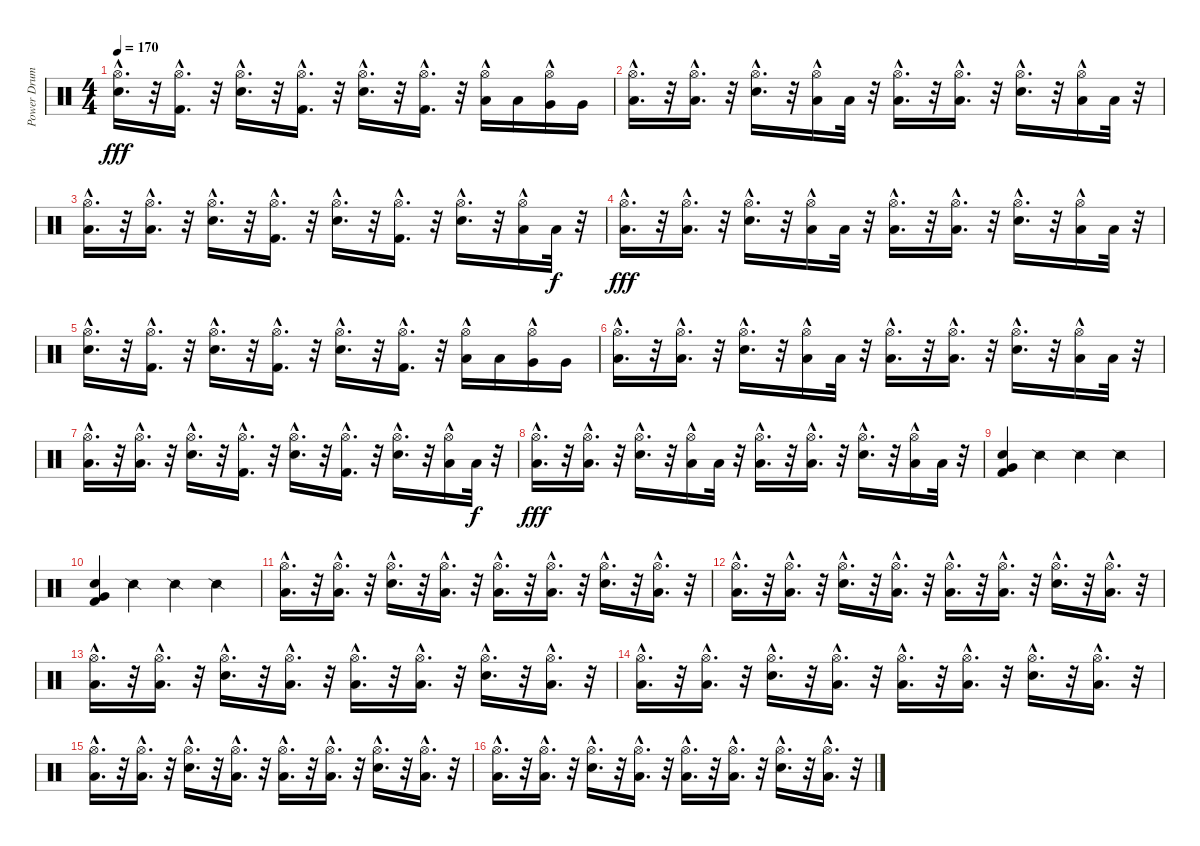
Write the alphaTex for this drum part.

\track ("Power Drums " "Power Drum") {instrument percussion}
\staff {score}
\articulation defaults
\ts (4 4)
\tempo 170
\clef neutral
\ks c
("Snare (hit) 2"{hac} "Hi-Hat (open)"{hac}).16{d dy fff} r.32 ("Kick (hit) 2"{hac} "Hi-Hat (open)"{hac}).16{d} r.32 ("Snare (hit) 2"{hac} "Hi-Hat (open)"{hac}).16{d} r.32 ("Kick (hit) 2"{hac} "Hi-Hat (open)"{hac}).16{d} r.32 ("Snare (hit) 2"{hac} "Hi-Hat (open)"{hac}).16{d} r.32 ("Kick (hit) 2"{hac} "Hi-Hat (open)"{hac}).16{d} r.32 ("Hi-Hat (open)"{hac} "Low Tom (hit)").16 "Low Tom (hit)".16 ("Hi-Hat (open)"{hac} "Very Low Tom (hit)").16 "Very Low Tom (hit)".16 |
("Hi-Hat (open)"{hac} "Low Floor Tom (hit)"{hac}).16{d} r.32 ("Hi-Hat (open)"{hac} "Low Floor Tom (hit)"{hac}).16{d} r.32 ("Snare (hit) 2"{hac} "Hi-Hat (open)"{hac}).16{d} r.32 ("Hi-Hat (open)"{hac} "Low Floor Tom (hit)").16 "Low Floor Tom (hit)".32 r.32 ("Hi-Hat (open)"{hac} "Low Floor Tom (hit)"{hac}).16{d} r.32 ("Hi-Hat (open)"{hac} "Low Floor Tom (hit)"{hac}).16{d} r.32 ("Snare (hit) 2"{hac} "Hi-Hat (open)"{hac}).16{d} r.32 ("Hi-Hat (open)"{hac} "Low Floor Tom (hit)").16 "Low Floor Tom (hit)".32 r.32 |
("Hi-Hat (open)"{hac} "Low Floor Tom (hit)"{hac}).16{d} r.32 ("Hi-Hat (open)"{hac} "Low Floor Tom (hit)"{hac}).16{d} r.32 ("Snare (hit) 2"{hac} "Hi-Hat (open)"{hac}).16{d} r.32 ("Kick (hit) 2"{hac} "Hi-Hat (open)"{hac}).16{d} r.32 ("Snare (hit) 2"{hac} "Hi-Hat (open)"{hac}).16{d} r.32 ("Kick (hit) 2"{hac} "Hi-Hat (open)"{hac}).16{d} r.32 ("Snare (hit) 2"{hac} "Hi-Hat (open)"{hac}).16{d} r.32 ("Hi-Hat (open)"{hac} "Low Floor Tom (hit)").16 "Low Floor Tom (hit)".32{dy f} r.32 |
("Hi-Hat (open)"{hac} "Low Floor Tom (hit)"{hac}).16{d dy fff} r.32 ("Hi-Hat (open)"{hac} "Low Floor Tom (hit)"{hac}).16{d} r.32 ("Snare (hit) 2"{hac} "Hi-Hat (open)"{hac}).16{d} r.32 ("Hi-Hat (open)"{hac} "Low Floor Tom (hit)").16 "Low Floor Tom (hit)".32 r.32 ("Hi-Hat (open)"{hac} "Low Floor Tom (hit)"{hac}).16{d} r.32 ("Hi-Hat (open)"{hac} "Low Floor Tom (hit)"{hac}).16{d} r.32 ("Snare (hit) 2"{hac} "Hi-Hat (open)"{hac}).16{d} r.32 ("Hi-Hat (open)"{hac} "Low Floor Tom (hit)").16 "Low Floor Tom (hit)".32 r.32 |
("Snare (hit) 2"{hac} "Hi-Hat (open)"{hac}).16{d} r.32 ("Kick (hit) 2"{hac} "Hi-Hat (open)"{hac}).16{d} r.32 ("Snare (hit) 2"{hac} "Hi-Hat (open)"{hac}).16{d} r.32 ("Kick (hit) 2"{hac} "Hi-Hat (open)"{hac}).16{d} r.32 ("Snare (hit) 2"{hac} "Hi-Hat (open)"{hac}).16{d} r.32 ("Kick (hit) 2"{hac} "Hi-Hat (open)"{hac}).16{d} r.32 ("Hi-Hat (open)"{hac} "Low Tom (hit)").16 "Low Tom (hit)".16 ("Hi-Hat (open)"{hac} "Very Low Tom (hit)").16 "Very Low Tom (hit)".16 |
("Hi-Hat (open)"{hac} "Low Floor Tom (hit)"{hac}).16{d} r.32 ("Hi-Hat (open)"{hac} "Low Floor Tom (hit)"{hac}).16{d} r.32 ("Snare (hit) 2"{hac} "Hi-Hat (open)"{hac}).16{d} r.32 ("Hi-Hat (open)"{hac} "Low Floor Tom (hit)").16 "Low Floor Tom (hit)".32 r.32 ("Hi-Hat (open)"{hac} "Low Floor Tom (hit)"{hac}).16{d} r.32 ("Hi-Hat (open)"{hac} "Low Floor Tom (hit)"{hac}).16{d} r.32 ("Snare (hit) 2"{hac} "Hi-Hat (open)"{hac}).16{d} r.32 ("Hi-Hat (open)"{hac} "Low Floor Tom (hit)").16 "Low Floor Tom (hit)".32 r.32 |
("Hi-Hat (open)"{hac} "Low Floor Tom (hit)"{hac}).16{d} r.32 ("Hi-Hat (open)"{hac} "Low Floor Tom (hit)"{hac}).16{d} r.32 ("Snare (hit) 2"{hac} "Hi-Hat (open)"{hac}).16{d} r.32 ("Kick (hit) 2"{hac} "Hi-Hat (open)"{hac}).16{d} r.32 ("Snare (hit) 2"{hac} "Hi-Hat (open)"{hac}).16{d} r.32 ("Kick (hit) 2"{hac} "Hi-Hat (open)"{hac}).16{d} r.32 ("Snare (hit) 2"{hac} "Hi-Hat (open)"{hac}).16{d} r.32 ("Hi-Hat (open)"{hac} "Low Floor Tom (hit)").16 "Low Floor Tom (hit)".32{dy f} r.32 |
("Hi-Hat (open)"{hac} "Low Floor Tom (hit)"{hac}).16{d dy fff} r.32 ("Hi-Hat (open)"{hac} "Low Floor Tom (hit)"{hac}).16{d} r.32 ("Snare (hit) 2"{hac} "Hi-Hat (open)"{hac}).16{d} r.32 ("Hi-Hat (open)"{hac} "Low Floor Tom (hit)").16 "Low Floor Tom (hit)".32 r.32 ("Hi-Hat (open)"{hac} "Low Floor Tom (hit)"{hac}).16{d} r.32 ("Hi-Hat (open)"{hac} "Low Floor Tom (hit)"{hac}).16{d} r.32 ("Snare (hit) 2"{hac} "Hi-Hat (open)"{hac}).16{d} r.32 ("Hi-Hat (open)"{hac} "Low Floor Tom (hit)").16 "Low Floor Tom (hit)".32 r.32 |
("Very Low Tom (hit)" "Electric Snare (hit)" "Kick (hit) 2").4 "Snare (side stick) 2".4 "Snare (side stick) 2".4 "Snare (side stick) 2".4 |
("Very Low Tom (hit)" "Electric Snare (hit)" "Kick (hit) 2").4 "Snare (side stick) 2".4 "Snare (side stick) 2".4 "Snare (side stick) 2".4 |
("Hi-Hat (open)"{hac} "Low Floor Tom (hit)"{hac}).16{d} r.32 ("Hi-Hat (open)"{hac} "Low Floor Tom (hit)"{hac}).16{d} r.32 ("Hi-Hat (open)"{hac} "Snare (hit) 2"{hac}).16{d} r.32 ("Hi-Hat (open)"{hac} "Low Floor Tom (hit)"{hac}).16{d} r.32 ("Hi-Hat (open)"{hac} "Low Floor Tom (hit)"{hac}).16{d} r.32 ("Hi-Hat (open)"{hac} "Low Floor Tom (hit)"{hac}).16{d} r.32 ("Hi-Hat (open)"{hac} "Snare (hit) 2"{hac}).16{d} r.32 ("Hi-Hat (open)"{hac} "Low Floor Tom (hit)"{hac}).16{d} r.32 |
("Hi-Hat (open)"{hac} "Low Floor Tom (hit)"{hac}).16{d} r.32 ("Hi-Hat (open)"{hac} "Low Floor Tom (hit)"{hac}).16{d} r.32 ("Hi-Hat (open)"{hac} "Snare (hit) 2"{hac}).16{d} r.32 ("Hi-Hat (open)"{hac} "Low Floor Tom (hit)"{hac}).16{d} r.32 ("Hi-Hat (open)"{hac} "Low Floor Tom (hit)"{hac}).16{d} r.32 ("Hi-Hat (open)"{hac} "Low Floor Tom (hit)"{hac}).16{d} r.32 ("Hi-Hat (open)"{hac} "Snare (hit) 2"{hac}).16{d} r.32 ("Hi-Hat (open)"{hac} "Low Floor Tom (hit)"{hac}).16{d} r.32 |
("Hi-Hat (open)"{hac} "Low Floor Tom (hit)"{hac}).16{d} r.32 ("Hi-Hat (open)"{hac} "Low Floor Tom (hit)"{hac}).16{d} r.32 ("Hi-Hat (open)"{hac} "Snare (hit) 2"{hac}).16{d} r.32 ("Hi-Hat (open)"{hac} "Low Floor Tom (hit)"{hac}).16{d} r.32 ("Hi-Hat (open)"{hac} "Low Floor Tom (hit)"{hac}).16{d} r.32 ("Hi-Hat (open)"{hac} "Low Floor Tom (hit)"{hac}).16{d} r.32 ("Hi-Hat (open)"{hac} "Snare (hit) 2"{hac}).16{d} r.32 ("Hi-Hat (open)"{hac} "Low Floor Tom (hit)"{hac}).16{d} r.32 |
("Hi-Hat (open)"{hac} "Low Floor Tom (hit)"{hac}).16{d} r.32 ("Hi-Hat (open)"{hac} "Low Floor Tom (hit)"{hac}).16{d} r.32 ("Hi-Hat (open)"{hac} "Snare (hit) 2"{hac}).16{d} r.32 ("Hi-Hat (open)"{hac} "Low Floor Tom (hit)"{hac}).16{d} r.32 ("Hi-Hat (open)"{hac} "Low Floor Tom (hit)"{hac}).16{d} r.32 ("Hi-Hat (open)"{hac} "Low Floor Tom (hit)"{hac}).16{d} r.32 ("Hi-Hat (open)"{hac} "Snare (hit) 2"{hac}).16{d} r.32 ("Hi-Hat (open)"{hac} "Low Floor Tom (hit)"{hac}).16{d} r.32 |
("Hi-Hat (open)"{hac} "Low Floor Tom (hit)"{hac}).16{d} r.32 ("Hi-Hat (open)"{hac} "Low Floor Tom (hit)"{hac}).16{d} r.32 ("Hi-Hat (open)"{hac} "Snare (hit) 2"{hac}).16{d} r.32 ("Hi-Hat (open)"{hac} "Low Floor Tom (hit)"{hac}).16{d} r.32 ("Hi-Hat (open)"{hac} "Low Floor Tom (hit)"{hac}).16{d} r.32 ("Hi-Hat (open)"{hac} "Low Floor Tom (hit)"{hac}).16{d} r.32 ("Hi-Hat (open)"{hac} "Snare (hit) 2"{hac}).16{d} r.32 ("Hi-Hat (open)"{hac} "Low Floor Tom (hit)"{hac}).16{d} r.32 |
("Hi-Hat (open)"{hac} "Low Floor Tom (hit)"{hac}).16{d} r.32 ("Hi-Hat (open)"{hac} "Low Floor Tom (hit)"{hac}).16{d} r.32 ("Hi-Hat (open)"{hac} "Snare (hit) 2"{hac}).16{d} r.32 ("Hi-Hat (open)"{hac} "Low Floor Tom (hit)"{hac}).16{d} r.32 ("Hi-Hat (open)"{hac} "Low Floor Tom (hit)"{hac}).16{d} r.32 ("Hi-Hat (open)"{hac} "Low Floor Tom (hit)"{hac}).16{d} r.32 ("Hi-Hat (open)"{hac} "Snare (hit) 2"{hac}).16{d} r.32 ("Hi-Hat (open)"{hac} "Low Floor Tom (hit)"{hac}).16{d} r.32
